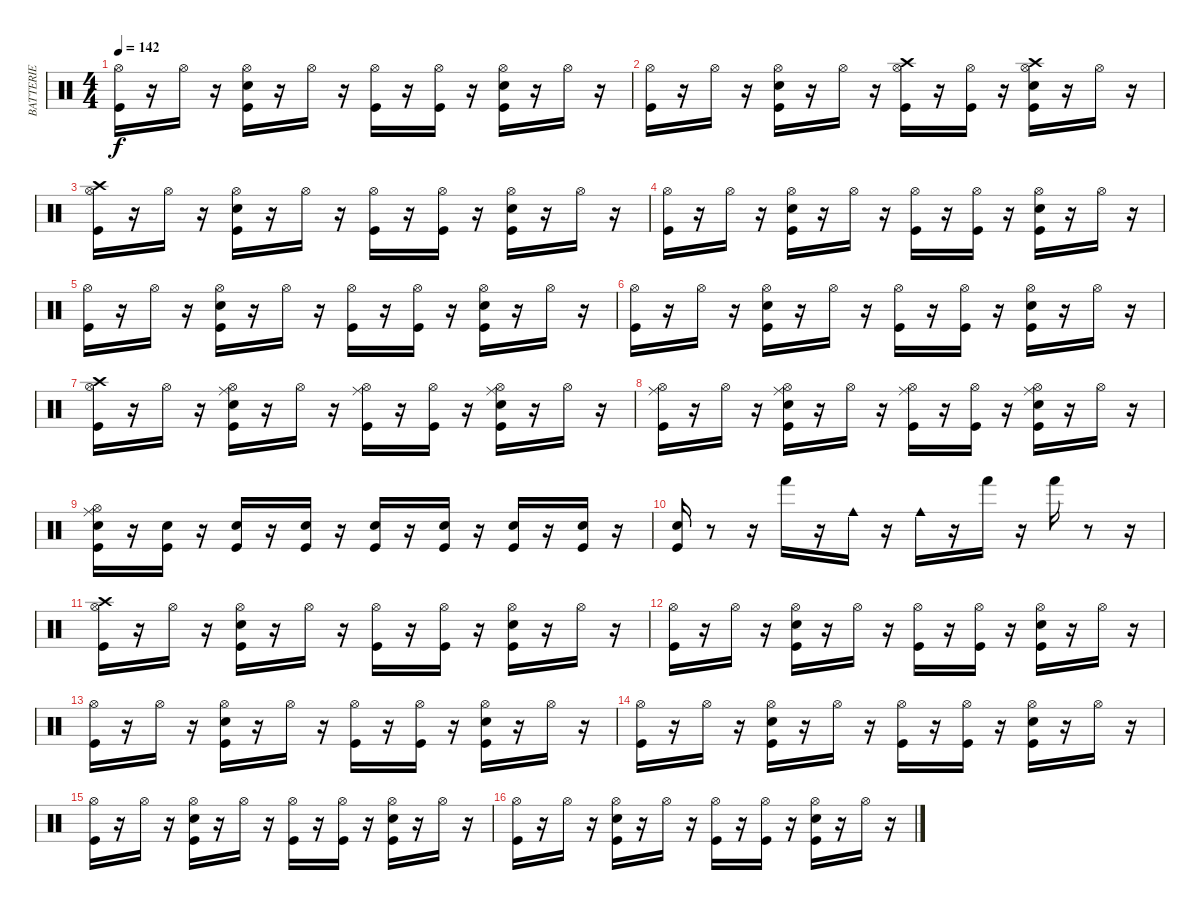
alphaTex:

\track ("BATTERIE" "BATTERIE") {instrument percussion}
\staff {score}
\articulation defaults
\ts (4 4)
\tempo 142
\clef neutral
\ks c
("Hi-Hat (open)" "Kick (hit)").16{dy f} r.16 "Hi-Hat (open)".16 r.16 ("Snare (hit) 2" "Kick (hit)" "Hi-Hat (open)").16 r.16 "Hi-Hat (open)".16 r.16 ("Kick (hit)" "Hi-Hat (open)").16 r.16 ("Kick (hit)" "Hi-Hat (open)").16 r.16 ("Kick (hit)" "Snare (hit) 2" "Hi-Hat (open)").16 r.16 "Hi-Hat (open)".16 r.16 |
("Hi-Hat (open)" "Kick (hit)").16 r.16 "Hi-Hat (open)".16 r.16 ("Snare (hit) 2" "Kick (hit)" "Hi-Hat (open)").16 r.16 "Hi-Hat (open)".16 r.16 ("Kick (hit)" "Hi-Hat (open)" "Crash high (hit)").16 r.16 ("Kick (hit)" "Hi-Hat (open)").16 r.16 ("Kick (hit)" "Snare (hit) 2" "Hi-Hat (open)" "Crash high (hit)").16 r.16 "Hi-Hat (open)".16 r.16 |
("Hi-Hat (open)" "Kick (hit)" "Crash high (hit)").16 r.16 "Hi-Hat (open)".16 r.16 ("Snare (hit) 2" "Kick (hit)" "Hi-Hat (open)").16 r.16 "Hi-Hat (open)".16 r.16 ("Kick (hit)" "Hi-Hat (open)").16 r.16 ("Kick (hit)" "Hi-Hat (open)").16 r.16 ("Kick (hit)" "Snare (hit) 2" "Hi-Hat (open)").16 r.16 "Hi-Hat (open)".16 r.16 |
("Hi-Hat (open)" "Kick (hit)").16 r.16 "Hi-Hat (open)".16 r.16 ("Snare (hit) 2" "Kick (hit)" "Hi-Hat (open)").16 r.16 "Hi-Hat (open)".16 r.16 ("Kick (hit)" "Hi-Hat (open)").16 r.16 ("Kick (hit)" "Hi-Hat (open)").16 r.16 ("Kick (hit)" "Snare (hit) 2" "Hi-Hat (open)").16 r.16 "Hi-Hat (open)".16 r.16 |
("Hi-Hat (open)" "Kick (hit)").16 r.16 "Hi-Hat (open)".16 r.16 ("Snare (hit) 2" "Kick (hit)" "Hi-Hat (open)").16 r.16 "Hi-Hat (open)".16 r.16 ("Kick (hit)" "Hi-Hat (open)").16 r.16 ("Kick (hit)" "Hi-Hat (open)").16 r.16 ("Kick (hit)" "Snare (hit) 2" "Hi-Hat (open)").16 r.16 "Hi-Hat (open)".16 r.16 |
("Hi-Hat (open)" "Kick (hit)").16 r.16 "Hi-Hat (open)".16 r.16 ("Snare (hit) 2" "Kick (hit)" "Hi-Hat (open)").16 r.16 "Hi-Hat (open)".16 r.16 ("Kick (hit)" "Hi-Hat (open)").16 r.16 ("Kick (hit)" "Hi-Hat (open)").16 r.16 ("Kick (hit)" "Snare (hit) 2" "Hi-Hat (open)").16 r.16 "Hi-Hat (open)".16 r.16 |
("Hi-Hat (open)" "Kick (hit)" "Crash high (hit)").16 r.16 "Hi-Hat (open)".16 r.16 ("Snare (hit) 2" "Kick (hit)" "Hi-Hat (open)" "Ride (middle)").16 r.16 "Hi-Hat (open)".16 r.16 ("Kick (hit)" "Hi-Hat (open)" "Ride (middle)").16 r.16 ("Kick (hit)" "Hi-Hat (open)").16 r.16 ("Kick (hit)" "Snare (hit) 2" "Hi-Hat (open)" "Ride (middle)").16 r.16 "Hi-Hat (open)".16 r.16 |
("Hi-Hat (open)" "Kick (hit)" "Ride (middle)").16 r.16 "Hi-Hat (open)".16 r.16 ("Snare (hit) 2" "Kick (hit)" "Hi-Hat (open)" "Ride (middle)").16 r.16 "Hi-Hat (open)".16 r.16 ("Kick (hit)" "Hi-Hat (open)" "Ride (middle)").16 r.16 ("Kick (hit)" "Hi-Hat (open)").16 r.16 ("Kick (hit)" "Snare (hit) 2" "Hi-Hat (open)" "Ride (middle)").16 r.16 "Hi-Hat (open)".16 r.16 |
("Hi-Hat (open)" "Kick (hit)" "Snare (hit) 2" "Ride (middle)").16 r.16 ("Kick (hit)" "Snare (hit) 2").16 r.16 ("Kick (hit)" "Snare (hit) 2").16 r.16 ("Kick (hit)" "Snare (hit) 2").16 r.16 ("Kick (hit)" "Snare (hit) 2").16 r.16 ("Kick (hit)" "Snare (hit) 2").16 r.16 ("Kick (hit)" "Snare (hit) 2").16 r.16 ("Kick (hit)" "Snare (hit) 2").16 r.16 |
("Kick (hit)" "Snare (hit) 2").16 r.8 r.16 "Hand (hit)".16 r.16 "Cowbell medium (hit)".16 r.16 "Cowbell medium (hit)".16 r.16 "Hand (hit)".16 r.16 "Hand (hit)".16 r.8 r.16 |
("Kick (hit)" "Hi-Hat (open)" "Crash high (hit)").16 r.16 "Hi-Hat (open)".16 r.16 ("Snare (hit) 2" "Kick (hit)" "Hi-Hat (open)").16 r.16 "Hi-Hat (open)".16 r.16 ("Kick (hit)" "Hi-Hat (open)").16 r.16 ("Kick (hit)" "Hi-Hat (open)").16 r.16 ("Kick (hit)" "Snare (hit) 2" "Hi-Hat (open)").16 r.16 "Hi-Hat (open)".16 r.16 |
("Kick (hit)" "Hi-Hat (open)").16 r.16 "Hi-Hat (open)".16 r.16 ("Snare (hit) 2" "Kick (hit)" "Hi-Hat (open)").16 r.16 "Hi-Hat (open)".16 r.16 ("Kick (hit)" "Hi-Hat (open)").16 r.16 ("Kick (hit)" "Hi-Hat (open)").16 r.16 ("Kick (hit)" "Snare (hit) 2" "Hi-Hat (open)").16 r.16 "Hi-Hat (open)".16 r.16 |
("Kick (hit)" "Hi-Hat (open)").16 r.16 "Hi-Hat (open)".16 r.16 ("Snare (hit) 2" "Kick (hit)" "Hi-Hat (open)").16 r.16 "Hi-Hat (open)".16 r.16 ("Kick (hit)" "Hi-Hat (open)").16 r.16 ("Kick (hit)" "Hi-Hat (open)").16 r.16 ("Kick (hit)" "Snare (hit) 2" "Hi-Hat (open)").16 r.16 "Hi-Hat (open)".16 r.16 |
("Kick (hit)" "Hi-Hat (open)").16 r.16 "Hi-Hat (open)".16 r.16 ("Snare (hit) 2" "Kick (hit)" "Hi-Hat (open)").16 r.16 "Hi-Hat (open)".16 r.16 ("Kick (hit)" "Hi-Hat (open)").16 r.16 ("Kick (hit)" "Hi-Hat (open)").16 r.16 ("Kick (hit)" "Snare (hit) 2" "Hi-Hat (open)").16 r.16 "Hi-Hat (open)".16 r.16 |
("Kick (hit)" "Hi-Hat (open)").16 r.16 "Hi-Hat (open)".16 r.16 ("Snare (hit) 2" "Kick (hit)" "Hi-Hat (open)").16 r.16 "Hi-Hat (open)".16 r.16 ("Kick (hit)" "Hi-Hat (open)").16 r.16 ("Kick (hit)" "Hi-Hat (open)").16 r.16 ("Kick (hit)" "Snare (hit) 2" "Hi-Hat (open)").16 r.16 "Hi-Hat (open)".16 r.16 |
("Kick (hit)" "Hi-Hat (open)").16 r.16 "Hi-Hat (open)".16 r.16 ("Snare (hit) 2" "Kick (hit)" "Hi-Hat (open)").16 r.16 "Hi-Hat (open)".16 r.16 ("Kick (hit)" "Hi-Hat (open)").16 r.16 ("Kick (hit)" "Hi-Hat (open)").16 r.16 ("Kick (hit)" "Snare (hit) 2" "Hi-Hat (open)").16 r.16 "Hi-Hat (open)".16 r.16
